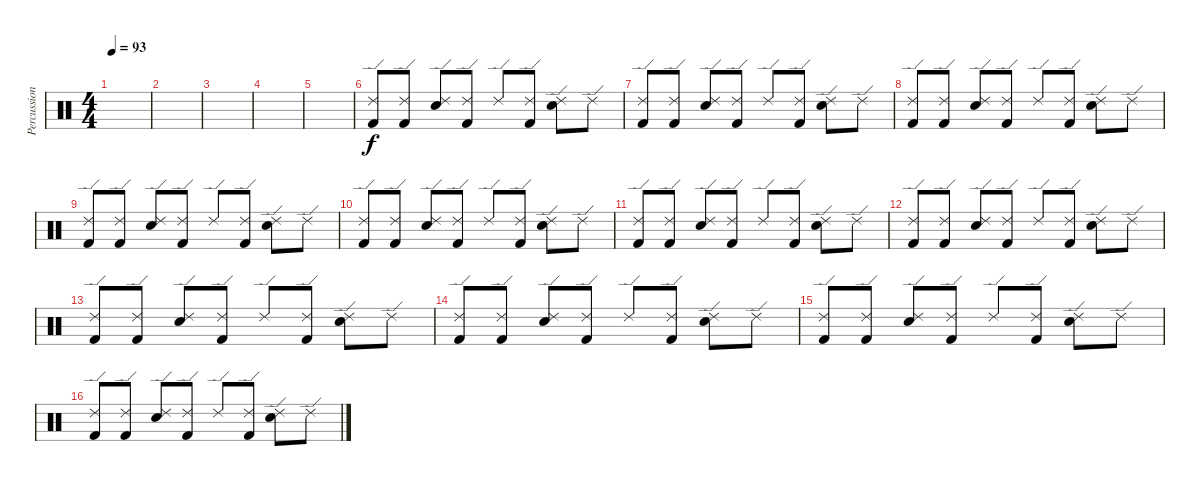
\track ("Percussion" "Percussion") {instrument percussion}
\staff {score}
\articulation defaults
\ts (4 4)
\tempo 93
\clef neutral
\ks c
|
|
|
|
|
("Ride (edge) 2" "Kick (hit) 2").8 ("Ride (edge) 2" "Kick (hit) 2").8 ("Ride (edge) 2" "Electric Snare (hit)").8 ("Ride (edge) 2" "Kick (hit) 2").8 "Ride (edge) 2".8 ("Ride (edge) 2" "Kick (hit) 2").8 ("Ride (edge) 2" "Electric Snare (hit)").8 "Ride (edge) 2".8 |
("Ride (edge) 2" "Kick (hit) 2").8 ("Ride (edge) 2" "Kick (hit) 2").8 ("Ride (edge) 2" "Electric Snare (hit)").8 ("Ride (edge) 2" "Kick (hit) 2").8 "Ride (edge) 2".8 ("Ride (edge) 2" "Kick (hit) 2").8 ("Ride (edge) 2" "Electric Snare (hit)").8 "Ride (edge) 2".8 |
("Ride (edge) 2" "Kick (hit) 2").8 ("Ride (edge) 2" "Kick (hit) 2").8 ("Ride (edge) 2" "Electric Snare (hit)").8 ("Ride (edge) 2" "Kick (hit) 2").8 "Ride (edge) 2".8 ("Ride (edge) 2" "Kick (hit) 2").8 ("Ride (edge) 2" "Electric Snare (hit)").8 "Ride (edge) 2".8 |
("Ride (edge) 2" "Kick (hit) 2").8 ("Ride (edge) 2" "Kick (hit) 2").8 ("Ride (edge) 2" "Electric Snare (hit)").8 ("Ride (edge) 2" "Kick (hit) 2").8 "Ride (edge) 2".8 ("Ride (edge) 2" "Kick (hit) 2").8 ("Ride (edge) 2" "Electric Snare (hit)").8 "Ride (edge) 2".8 |
("Ride (edge) 2" "Kick (hit) 2").8 ("Ride (edge) 2" "Kick (hit) 2").8 ("Ride (edge) 2" "Electric Snare (hit)").8 ("Ride (edge) 2" "Kick (hit) 2").8 "Ride (edge) 2".8 ("Ride (edge) 2" "Kick (hit) 2").8 ("Ride (edge) 2" "Electric Snare (hit)").8 "Ride (edge) 2".8 |
("Ride (edge) 2" "Kick (hit) 2").8 ("Ride (edge) 2" "Kick (hit) 2").8 ("Ride (edge) 2" "Electric Snare (hit)").8 ("Ride (edge) 2" "Kick (hit) 2").8 "Ride (edge) 2".8 ("Ride (edge) 2" "Kick (hit) 2").8 ("Ride (edge) 2" "Electric Snare (hit)").8 "Ride (edge) 2".8 |
("Ride (edge) 2" "Kick (hit) 2").8 ("Ride (edge) 2" "Kick (hit) 2").8 ("Ride (edge) 2" "Electric Snare (hit)").8 ("Ride (edge) 2" "Kick (hit) 2").8 "Ride (edge) 2".8 ("Ride (edge) 2" "Kick (hit) 2").8 ("Ride (edge) 2" "Electric Snare (hit)").8 "Ride (edge) 2".8 |
("Ride (edge) 2" "Kick (hit) 2").8 ("Ride (edge) 2" "Kick (hit) 2").8 ("Ride (edge) 2" "Electric Snare (hit)").8 ("Ride (edge) 2" "Kick (hit) 2").8 "Ride (edge) 2".8 ("Ride (edge) 2" "Kick (hit) 2").8 ("Ride (edge) 2" "Electric Snare (hit)").8 "Ride (edge) 2".8 |
("Ride (edge) 2" "Kick (hit) 2").8 ("Ride (edge) 2" "Kick (hit) 2").8 ("Ride (edge) 2" "Electric Snare (hit)").8 ("Ride (edge) 2" "Kick (hit) 2").8 "Ride (edge) 2".8 ("Ride (edge) 2" "Kick (hit) 2").8 ("Ride (edge) 2" "Electric Snare (hit)").8 "Ride (edge) 2".8 |
("Ride (edge) 2" "Kick (hit) 2").8 ("Ride (edge) 2" "Kick (hit) 2").8 ("Ride (edge) 2" "Electric Snare (hit)").8 ("Ride (edge) 2" "Kick (hit) 2").8 "Ride (edge) 2".8 ("Ride (edge) 2" "Kick (hit) 2").8 ("Ride (edge) 2" "Electric Snare (hit)").8 "Ride (edge) 2".8 |
("Ride (edge) 2" "Kick (hit) 2").8 ("Ride (edge) 2" "Kick (hit) 2").8 ("Ride (edge) 2" "Electric Snare (hit)").8 ("Ride (edge) 2" "Kick (hit) 2").8 "Ride (edge) 2".8 ("Ride (edge) 2" "Kick (hit) 2").8 ("Ride (edge) 2" "Electric Snare (hit)").8 "Ride (edge) 2".8
